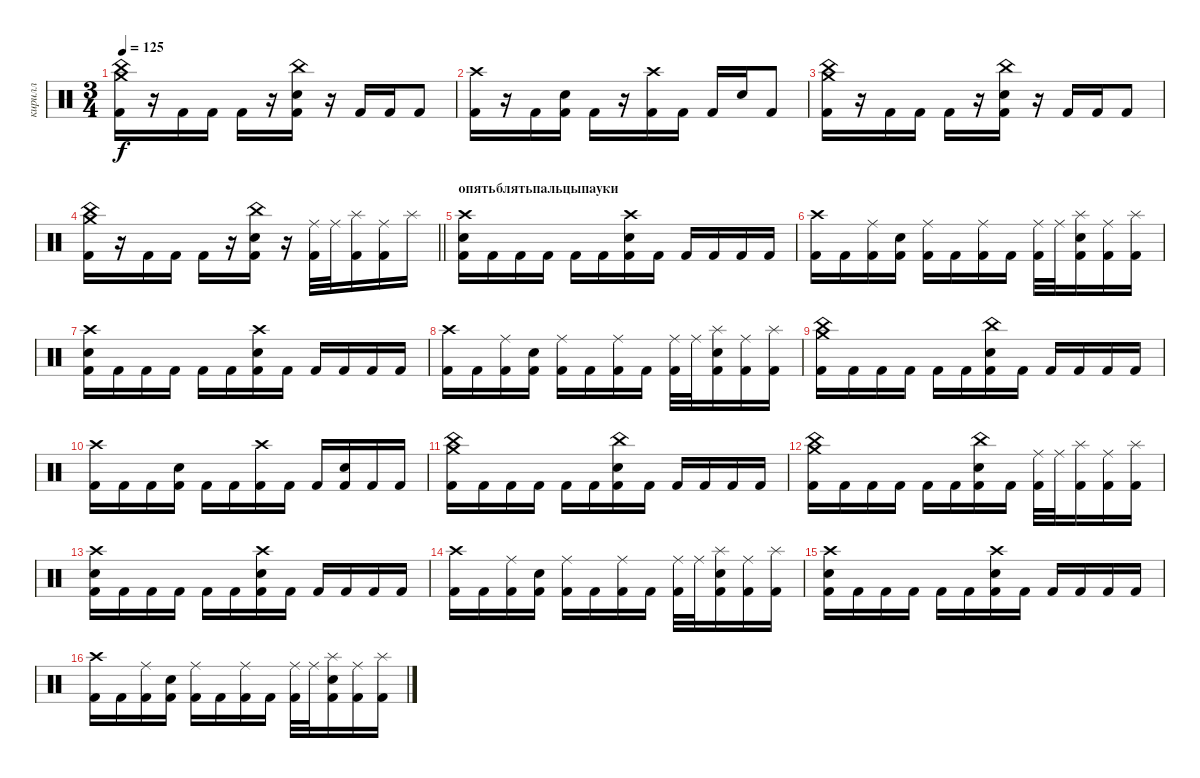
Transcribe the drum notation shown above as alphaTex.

\track ("кирилл" "кирилл") {instrument percussion}
\staff {score}
\articulation defaults
\ts (3 4)
\tempo 125
\clef neutral
\ks c
("China (hit)" "Crash medium (hit)" "Kick (hit) 2").16{dy f} r.16 "Kick (hit) 2".16 "Kick (hit) 2".16 "Kick (hit) 2".16 r.16 ("China (hit)" "Electric Snare (hit)" "Kick (hit) 2").16 r.16 "Kick (hit) 2".16 "Kick (hit) 2".16 "Kick (hit) 2".8 |
("Crash high (hit)" "Kick (hit) 2").16 r.16 "Kick (hit) 2".16 ("Electric Snare (hit)" "Kick (hit) 2").16 "Kick (hit) 2".16 r.16 ("Crash high (hit)" "Kick (hit) 2").16 "Kick (hit) 2".16 "Kick (hit) 2".16 "Electric Snare (hit)".16 "Kick (hit) 2".8 |
("China (hit)" "Crash medium (hit)" "Kick (hit) 2").16 r.16 "Kick (hit) 2".16 "Kick (hit) 2".16 "Kick (hit) 2".16 r.16 ("China (hit)" "Electric Snare (hit)" "Kick (hit) 2").16 r.16 "Kick (hit) 2".16 "Kick (hit) 2".16 "Kick (hit) 2".8 |
\barLineRight lightlight
("China (hit)" "Crash medium (hit)" "Kick (hit) 2").16 r.16 "Kick (hit) 2".16 "Kick (hit) 2".16 "Kick (hit) 2".16 r.16 ("China (hit)" "Electric Snare (hit)" "Kick (hit) 2").16 r.16 ("Ride (middle)" "Kick (hit) 2").32 "Ride (middle)".32 ("Splash (hit)" "Kick (hit) 2").16 ("Ride (middle)" "Kick (hit) 2").16 "Splash (hit)".16 |
\section ("" "опятьблятьпальцыпауки")
("Crash high (hit)" "Electric Snare (hit)" "Kick (hit) 2").16 "Kick (hit) 2".16 "Kick (hit) 2".16 "Kick (hit) 2".16 "Kick (hit) 2".16 "Kick (hit) 2".16 ("Crash high (hit)" "Electric Snare (hit)" "Kick (hit) 2").16 "Kick (hit) 2".16 "Kick (hit) 2".16 "Kick (hit) 2".16 "Kick (hit) 2".16 "Kick (hit) 2".16 |
("Crash high (hit)" "Kick (hit) 2").16 "Kick (hit) 2".16 ("Ride (middle)" "Kick (hit) 2").16 ("Electric Snare (hit)" "Kick (hit) 2").16 ("Ride (middle)" "Kick (hit) 2").16 "Kick (hit) 2".16 ("Ride (middle)" "Kick (hit) 2").16 "Kick (hit) 2".16 ("Ride (middle)" "Kick (hit) 2").32 "Ride (middle)".32 ("Splash (hit)" "Electric Snare (hit)" "Kick (hit) 2").16 ("Ride (middle)" "Kick (hit) 2").16 ("Splash (hit)" "Kick (hit) 2").16 |
("Crash high (hit)" "Electric Snare (hit)" "Kick (hit) 2").16 "Kick (hit) 2".16 "Kick (hit) 2".16 "Kick (hit) 2".16 "Kick (hit) 2".16 "Kick (hit) 2".16 ("Crash high (hit)" "Electric Snare (hit)" "Kick (hit) 2").16 "Kick (hit) 2".16 "Kick (hit) 2".16 "Kick (hit) 2".16 "Kick (hit) 2".16 "Kick (hit) 2".16 |
("Crash high (hit)" "Kick (hit) 2").16 "Kick (hit) 2".16 ("Ride (middle)" "Kick (hit) 2").16 ("Electric Snare (hit)" "Kick (hit) 2").16 ("Ride (middle)" "Kick (hit) 2").16 "Kick (hit) 2".16 ("Ride (middle)" "Kick (hit) 2").16 "Kick (hit) 2".16 ("Ride (middle)" "Kick (hit) 2").32 "Ride (middle)".32 ("Splash (hit)" "Electric Snare (hit)" "Kick (hit) 2").16 ("Ride (middle)" "Kick (hit) 2").16 ("Splash (hit)" "Kick (hit) 2").16 |
("China (hit)" "Crash medium (hit)" "Kick (hit) 2").16 "Kick (hit) 2".16 "Kick (hit) 2".16 "Kick (hit) 2".16 "Kick (hit) 2".16 "Kick (hit) 2".16 ("China (hit)" "Electric Snare (hit)" "Kick (hit) 2").16 "Kick (hit) 2".16 "Kick (hit) 2".16 "Kick (hit) 2".16 "Kick (hit) 2".16 "Kick (hit) 2".16 |
("Crash high (hit)" "Kick (hit) 2").16 "Kick (hit) 2".16 "Kick (hit) 2".16 ("Electric Snare (hit)" "Kick (hit) 2").16 "Kick (hit) 2".16 "Kick (hit) 2".16 ("Crash high (hit)" "Kick (hit) 2").16 "Kick (hit) 2".16 "Kick (hit) 2".16 ("Electric Snare (hit)" "Kick (hit) 2").16 "Kick (hit) 2".16 "Kick (hit) 2".16 |
("China (hit)" "Crash medium (hit)" "Kick (hit) 2").16 "Kick (hit) 2".16 "Kick (hit) 2".16 "Kick (hit) 2".16 "Kick (hit) 2".16 "Kick (hit) 2".16 ("China (hit)" "Electric Snare (hit)" "Kick (hit) 2").16 "Kick (hit) 2".16 "Kick (hit) 2".16 "Kick (hit) 2".16 "Kick (hit) 2".16 "Kick (hit) 2".16 |
("China (hit)" "Crash medium (hit)" "Kick (hit) 2").16 "Kick (hit) 2".16 "Kick (hit) 2".16 "Kick (hit) 2".16 "Kick (hit) 2".16 "Kick (hit) 2".16 ("China (hit)" "Electric Snare (hit)" "Kick (hit) 2").16 "Kick (hit) 2".16 ("Ride (middle)" "Kick (hit) 2").32 "Ride (middle)".32 ("Splash (hit)" "Kick (hit) 2").16 ("Ride (middle)" "Kick (hit) 2").16 ("Splash (hit)" "Kick (hit) 2").16 |
("Crash high (hit)" "Electric Snare (hit)" "Kick (hit) 2").16 "Kick (hit) 2".16 "Kick (hit) 2".16 "Kick (hit) 2".16 "Kick (hit) 2".16 "Kick (hit) 2".16 ("Crash high (hit)" "Electric Snare (hit)" "Kick (hit) 2").16 "Kick (hit) 2".16 "Kick (hit) 2".16 "Kick (hit) 2".16 "Kick (hit) 2".16 "Kick (hit) 2".16 |
("Crash high (hit)" "Kick (hit) 2").16 "Kick (hit) 2".16 ("Ride (middle)" "Kick (hit) 2").16 ("Electric Snare (hit)" "Kick (hit) 2").16 ("Ride (middle)" "Kick (hit) 2").16 "Kick (hit) 2".16 ("Ride (middle)" "Kick (hit) 2").16 "Kick (hit) 2".16 ("Ride (middle)" "Kick (hit) 2").32 "Ride (middle)".32 ("Splash (hit)" "Electric Snare (hit)" "Kick (hit) 2").16 ("Ride (middle)" "Kick (hit) 2").16 ("Splash (hit)" "Kick (hit) 2").16 |
("Crash high (hit)" "Electric Snare (hit)" "Kick (hit) 2").16 "Kick (hit) 2".16 "Kick (hit) 2".16 "Kick (hit) 2".16 "Kick (hit) 2".16 "Kick (hit) 2".16 ("Crash high (hit)" "Electric Snare (hit)" "Kick (hit) 2").16 "Kick (hit) 2".16 "Kick (hit) 2".16 "Kick (hit) 2".16 "Kick (hit) 2".16 "Kick (hit) 2".16 |
("Crash high (hit)" "Kick (hit) 2").16 "Kick (hit) 2".16 ("Ride (middle)" "Kick (hit) 2").16 ("Electric Snare (hit)" "Kick (hit) 2").16 ("Ride (middle)" "Kick (hit) 2").16 "Kick (hit) 2".16 ("Ride (middle)" "Kick (hit) 2").16 "Kick (hit) 2".16 ("Ride (middle)" "Kick (hit) 2").32 "Ride (middle)".32 ("Splash (hit)" "Electric Snare (hit)" "Kick (hit) 2").16 ("Ride (middle)" "Kick (hit) 2").16 ("Splash (hit)" "Kick (hit) 2").16
